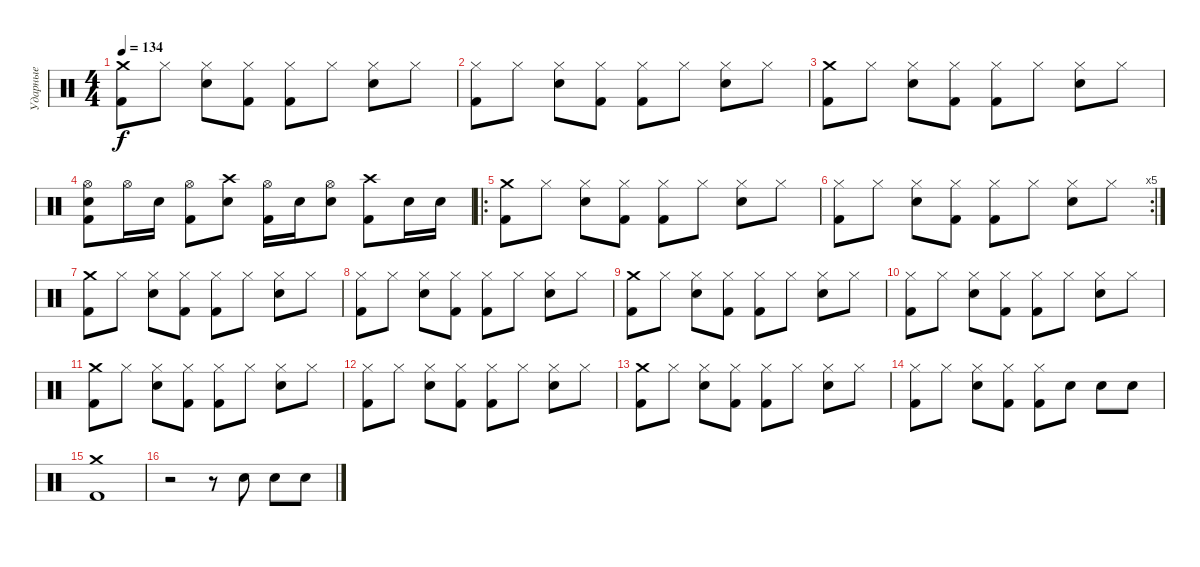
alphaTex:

\track ("Ударные" "Ударные") {instrument percussion}
\staff {score}
\articulation defaults
\ts (4 4)
\tempo 134
\clef neutral
\ks c
("Kick (hit) 2" "Crash medium (hit)").8{dy f} "Hi-Hat (closed)".8 ("Electric Snare (hit)" "Hi-Hat (closed)").8 ("Kick (hit) 2" "Hi-Hat (closed)").8 ("Kick (hit) 2" "Hi-Hat (closed)").8 "Hi-Hat (closed)".8 ("Electric Snare (hit)" "Hi-Hat (closed)").8 "Hi-Hat (closed)".8 |
("Kick (hit) 2" "Hi-Hat (closed)").8 "Hi-Hat (closed)".8 ("Electric Snare (hit)" "Hi-Hat (closed)").8 ("Kick (hit) 2" "Hi-Hat (closed)").8 ("Kick (hit) 2" "Hi-Hat (closed)").8 "Hi-Hat (closed)".8 ("Electric Snare (hit)" "Hi-Hat (closed)").8 "Hi-Hat (closed)".8 |
("Kick (hit) 2" "Crash medium (hit)").8 "Hi-Hat (closed)".8 ("Electric Snare (hit)" "Hi-Hat (closed)").8 ("Kick (hit) 2" "Hi-Hat (closed)").8 ("Kick (hit) 2" "Hi-Hat (closed)").8 "Hi-Hat (closed)".8 ("Electric Snare (hit)" "Hi-Hat (closed)").8 "Hi-Hat (closed)".8 |
("Kick (hit) 2" "Hi-Hat (open)" "Electric Snare (hit)").8 "Hi-Hat (open)".16 "Electric Snare (hit)".16 ("Kick (hit) 2" "Hi-Hat (open)").8 ("Electric Snare (hit)" "Crash high (hit)").8 ("Kick (hit) 2" "Hi-Hat (open)").16 "Electric Snare (hit)".16 ("Electric Snare (hit)" "Hi-Hat (open)").8 ("Kick (hit) 2" "Crash high (hit)").8 "Electric Snare (hit)".16 "Electric Snare (hit)".16 |
\ro
("Kick (hit) 2" "Crash medium (hit)").8 "Hi-Hat (closed)".8 ("Electric Snare (hit)" "Hi-Hat (closed)").8 ("Kick (hit) 2" "Hi-Hat (closed)").8 ("Kick (hit) 2" "Hi-Hat (closed)").8 "Hi-Hat (closed)".8 ("Electric Snare (hit)" "Hi-Hat (closed)").8 "Hi-Hat (closed)".8 |
\rc 5
("Kick (hit) 2" "Hi-Hat (closed)").8 "Hi-Hat (closed)".8 ("Electric Snare (hit)" "Hi-Hat (closed)").8 ("Kick (hit) 2" "Hi-Hat (closed)").8 ("Kick (hit) 2" "Hi-Hat (closed)").8 "Hi-Hat (closed)".8 ("Electric Snare (hit)" "Hi-Hat (closed)").8 "Hi-Hat (closed)".8 |
("Kick (hit) 2" "Crash medium (hit)").8 "Hi-Hat (closed)".8 ("Electric Snare (hit)" "Hi-Hat (closed)").8 ("Kick (hit) 2" "Hi-Hat (closed)").8 ("Kick (hit) 2" "Hi-Hat (closed)").8 "Hi-Hat (closed)".8 ("Electric Snare (hit)" "Hi-Hat (closed)").8 "Hi-Hat (closed)".8 |
("Kick (hit) 2" "Hi-Hat (closed)").8 "Hi-Hat (closed)".8 ("Electric Snare (hit)" "Hi-Hat (closed)").8 ("Kick (hit) 2" "Hi-Hat (closed)").8 ("Kick (hit) 2" "Hi-Hat (closed)").8 "Hi-Hat (closed)".8 ("Electric Snare (hit)" "Hi-Hat (closed)").8 "Hi-Hat (closed)".8 |
("Kick (hit) 2" "Crash medium (hit)").8 "Hi-Hat (closed)".8 ("Electric Snare (hit)" "Hi-Hat (closed)").8 ("Kick (hit) 2" "Hi-Hat (closed)").8 ("Kick (hit) 2" "Hi-Hat (closed)").8 "Hi-Hat (closed)".8 ("Electric Snare (hit)" "Hi-Hat (closed)").8 "Hi-Hat (closed)".8 |
("Kick (hit) 2" "Hi-Hat (closed)").8 "Hi-Hat (closed)".8 ("Electric Snare (hit)" "Hi-Hat (closed)").8 ("Kick (hit) 2" "Hi-Hat (closed)").8 ("Kick (hit) 2" "Hi-Hat (closed)").8 "Hi-Hat (closed)".8 ("Electric Snare (hit)" "Hi-Hat (closed)").8 "Hi-Hat (closed)".8 |
("Kick (hit) 2" "Crash medium (hit)").8 "Hi-Hat (closed)".8 ("Electric Snare (hit)" "Hi-Hat (closed)").8 ("Kick (hit) 2" "Hi-Hat (closed)").8 ("Kick (hit) 2" "Hi-Hat (closed)").8 "Hi-Hat (closed)".8 ("Electric Snare (hit)" "Hi-Hat (closed)").8 "Hi-Hat (closed)".8 |
("Kick (hit) 2" "Hi-Hat (closed)").8 "Hi-Hat (closed)".8 ("Electric Snare (hit)" "Hi-Hat (closed)").8 ("Kick (hit) 2" "Hi-Hat (closed)").8 ("Kick (hit) 2" "Hi-Hat (closed)").8 "Hi-Hat (closed)".8 ("Electric Snare (hit)" "Hi-Hat (closed)").8 "Hi-Hat (closed)".8 |
("Kick (hit) 2" "Crash medium (hit)").8 "Hi-Hat (closed)".8 ("Electric Snare (hit)" "Hi-Hat (closed)").8 ("Kick (hit) 2" "Hi-Hat (closed)").8 ("Kick (hit) 2" "Hi-Hat (closed)").8 "Hi-Hat (closed)".8 ("Electric Snare (hit)" "Hi-Hat (closed)").8 "Hi-Hat (closed)".8 |
("Kick (hit) 2" "Hi-Hat (closed)").8 "Hi-Hat (closed)".8 ("Electric Snare (hit)" "Hi-Hat (closed)").8 ("Kick (hit) 2" "Hi-Hat (closed)").8 ("Kick (hit) 2" "Hi-Hat (closed)").8 "Electric Snare (hit)".8 "Electric Snare (hit)".8 "Electric Snare (hit)".8 |
("Kick (hit) 2" "Crash medium (hit)").1 |
r.2 r.8 "Electric Snare (hit)".8 "Electric Snare (hit)".8 "Electric Snare (hit)".8
